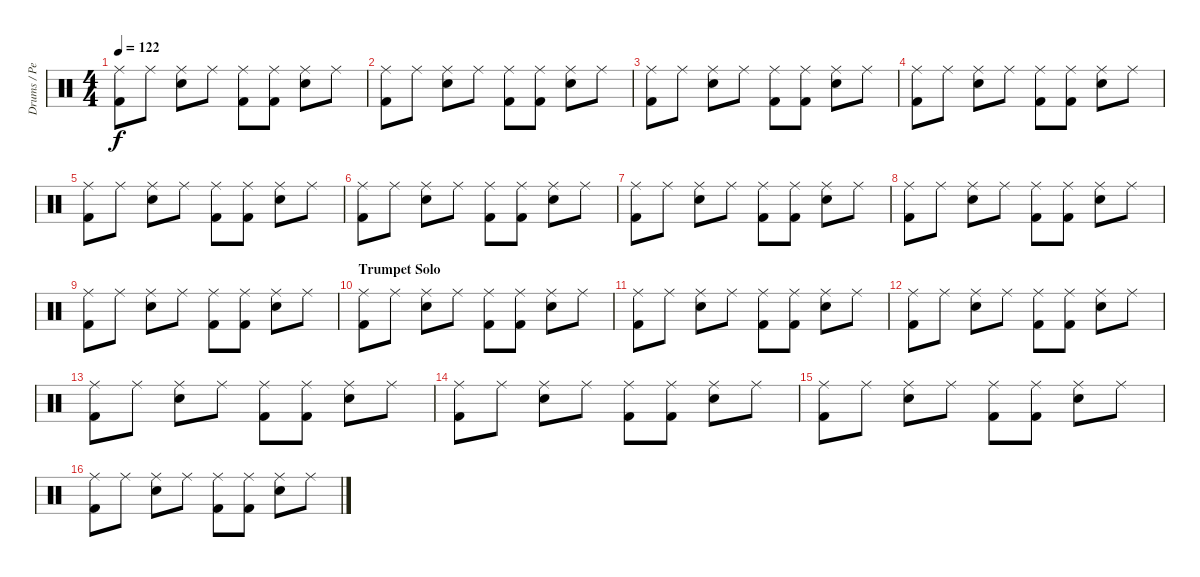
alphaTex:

\track ("Drums / Percussion" "Drums / Pe") {instrument percussion}
\staff {score}
\articulation defaults
\ts (4 4)
\tempo 122
\clef neutral
\ks c
("Ride (middle)" "Kick (hit) 2").8{dy f} "Ride (middle)".8 ("Ride (middle)" "Snare (hit) 2").8 "Ride (middle)".8 ("Ride (middle)" "Kick (hit) 2").8 ("Ride (middle)" "Kick (hit) 2").8 ("Ride (middle)" "Snare (hit) 2").8 "Ride (middle)".8 |
("Ride (middle)" "Kick (hit) 2").8 "Ride (middle)".8 ("Ride (middle)" "Snare (hit) 2").8 "Ride (middle)".8 ("Ride (middle)" "Kick (hit) 2").8 ("Ride (middle)" "Kick (hit) 2").8 ("Ride (middle)" "Snare (hit) 2").8 "Ride (middle)".8 |
("Ride (middle)" "Kick (hit) 2").8 "Ride (middle)".8 ("Ride (middle)" "Snare (hit) 2").8 "Ride (middle)".8 ("Ride (middle)" "Kick (hit) 2").8 ("Ride (middle)" "Kick (hit) 2").8 ("Ride (middle)" "Snare (hit) 2").8 "Ride (middle)".8 |
("Ride (middle)" "Kick (hit) 2").8 "Ride (middle)".8 ("Ride (middle)" "Snare (hit) 2").8 "Ride (middle)".8 ("Ride (middle)" "Kick (hit) 2").8 ("Ride (middle)" "Kick (hit) 2").8 ("Ride (middle)" "Snare (hit) 2").8 "Ride (middle)".8 |
("Ride (middle)" "Kick (hit) 2").8 "Ride (middle)".8 ("Ride (middle)" "Snare (hit) 2").8 "Ride (middle)".8 ("Ride (middle)" "Kick (hit) 2").8 ("Ride (middle)" "Kick (hit) 2").8 ("Ride (middle)" "Snare (hit) 2").8 "Ride (middle)".8 |
("Ride (middle)" "Kick (hit) 2").8 "Ride (middle)".8 ("Ride (middle)" "Snare (hit) 2").8 "Ride (middle)".8 ("Ride (middle)" "Kick (hit) 2").8 ("Ride (middle)" "Kick (hit) 2").8 ("Ride (middle)" "Snare (hit) 2").8 "Ride (middle)".8 |
("Ride (middle)" "Kick (hit) 2").8 "Ride (middle)".8 ("Ride (middle)" "Snare (hit) 2").8 "Ride (middle)".8 ("Ride (middle)" "Kick (hit) 2").8 ("Ride (middle)" "Kick (hit) 2").8 ("Ride (middle)" "Snare (hit) 2").8 "Ride (middle)".8 |
("Ride (middle)" "Kick (hit) 2").8 "Ride (middle)".8 ("Ride (middle)" "Snare (hit) 2").8 "Ride (middle)".8 ("Ride (middle)" "Kick (hit) 2").8 ("Ride (middle)" "Kick (hit) 2").8 ("Ride (middle)" "Snare (hit) 2").8 "Ride (middle)".8 |
("Ride (middle)" "Kick (hit) 2").8 "Ride (middle)".8 ("Ride (middle)" "Snare (hit) 2").8 "Ride (middle)".8 ("Ride (middle)" "Kick (hit) 2").8 ("Ride (middle)" "Kick (hit) 2").8 ("Ride (middle)" "Snare (hit) 2").8 "Ride (middle)".8 |
\section ("" "Trumpet Solo ")
("Ride (middle)" "Kick (hit) 2").8 "Ride (middle)".8 ("Ride (middle)" "Snare (hit) 2").8 "Ride (middle)".8 ("Ride (middle)" "Kick (hit) 2").8 ("Ride (middle)" "Kick (hit) 2").8 ("Ride (middle)" "Snare (hit) 2").8 "Ride (middle)".8 |
("Ride (middle)" "Kick (hit) 2").8 "Ride (middle)".8 ("Ride (middle)" "Snare (hit) 2").8 "Ride (middle)".8 ("Ride (middle)" "Kick (hit) 2").8 ("Ride (middle)" "Kick (hit) 2").8 ("Ride (middle)" "Snare (hit) 2").8 "Ride (middle)".8 |
("Ride (middle)" "Kick (hit) 2").8 "Ride (middle)".8 ("Ride (middle)" "Snare (hit) 2").8 "Ride (middle)".8 ("Ride (middle)" "Kick (hit) 2").8 ("Ride (middle)" "Kick (hit) 2").8 ("Ride (middle)" "Snare (hit) 2").8 "Ride (middle)".8 |
("Ride (middle)" "Kick (hit) 2").8 "Ride (middle)".8 ("Ride (middle)" "Snare (hit) 2").8 "Ride (middle)".8 ("Ride (middle)" "Kick (hit) 2").8 ("Ride (middle)" "Kick (hit) 2").8 ("Ride (middle)" "Snare (hit) 2").8 "Ride (middle)".8 |
("Ride (middle)" "Kick (hit) 2").8 "Ride (middle)".8 ("Ride (middle)" "Snare (hit) 2").8 "Ride (middle)".8 ("Ride (middle)" "Kick (hit) 2").8 ("Ride (middle)" "Kick (hit) 2").8 ("Ride (middle)" "Snare (hit) 2").8 "Ride (middle)".8 |
("Ride (middle)" "Kick (hit) 2").8 "Ride (middle)".8 ("Ride (middle)" "Snare (hit) 2").8 "Ride (middle)".8 ("Ride (middle)" "Kick (hit) 2").8 ("Ride (middle)" "Kick (hit) 2").8 ("Ride (middle)" "Snare (hit) 2").8 "Ride (middle)".8 |
("Ride (middle)" "Kick (hit) 2").8 "Ride (middle)".8 ("Ride (middle)" "Snare (hit) 2").8 "Ride (middle)".8 ("Ride (middle)" "Kick (hit) 2").8 ("Ride (middle)" "Kick (hit) 2").8 ("Ride (middle)" "Snare (hit) 2").8 "Ride (middle)".8
